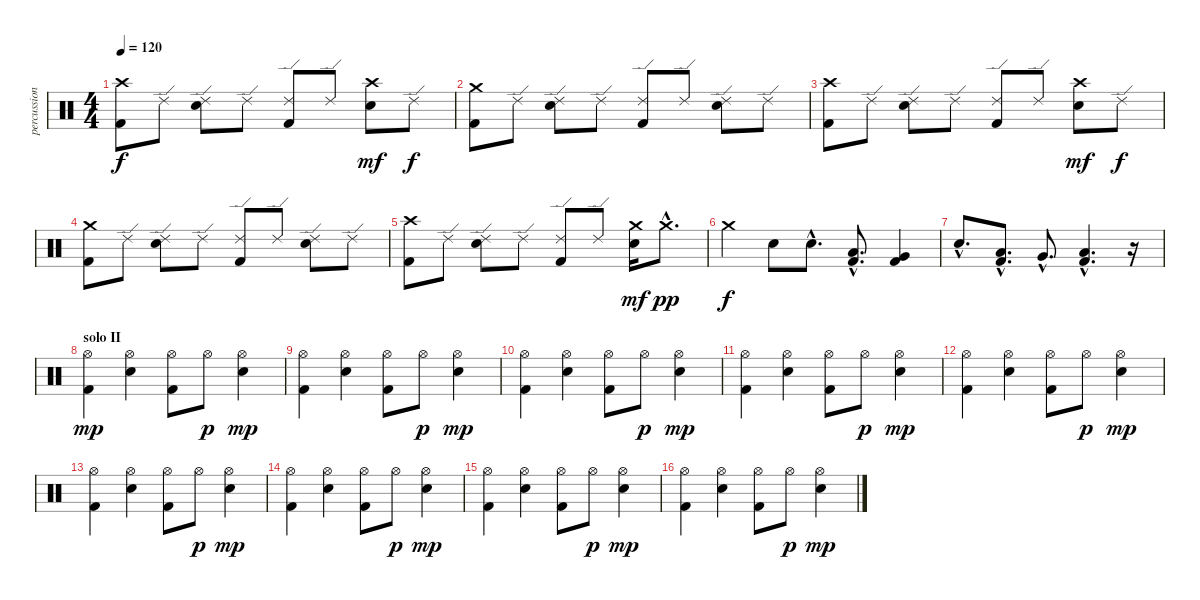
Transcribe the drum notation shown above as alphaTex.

\track ("percussion" "percussion") {instrument percussion}
\staff {score}
\articulation defaults
\ts (4 4)
\tempo 120
\clef neutral
\ks c
("Crash high (hit)" "Kick (hit) 2").8{dy f} "Ride (edge) 2".8 ("Ride (edge) 2" "Electric Snare (hit)").8 "Ride (edge) 2".8 ("Ride (edge) 2" "Kick (hit) 2").8 "Ride (edge) 2".8 ("Crash high (hit)" "Electric Snare (hit)").8{dy mf} "Ride (edge) 2".8{dy f} |
("Crash medium (hit)" "Kick (hit) 2").8 "Ride (edge) 2".8 ("Ride (edge) 2" "Electric Snare (hit)").8 "Ride (edge) 2".8 ("Ride (edge) 2" "Kick (hit) 2").8 "Ride (edge) 2".8 ("Ride (edge) 2" "Electric Snare (hit)").8 "Ride (edge) 2".8 |
("Crash high (hit)" "Kick (hit) 2").8 "Ride (edge) 2".8 ("Ride (edge) 2" "Electric Snare (hit)").8 "Ride (edge) 2".8 ("Ride (edge) 2" "Kick (hit) 2").8 "Ride (edge) 2".8 ("Crash high (hit)" "Electric Snare (hit)").8{dy mf} "Ride (edge) 2".8{dy f} |
("Crash medium (hit)" "Kick (hit) 2").8 "Ride (edge) 2".8 ("Ride (edge) 2" "Electric Snare (hit)").8 "Ride (edge) 2".8 ("Ride (edge) 2" "Kick (hit) 2").8 "Ride (edge) 2".8 ("Ride (edge) 2" "Electric Snare (hit)").8 "Ride (edge) 2".8 |
("Crash high (hit)" "Kick (hit) 2").8 "Ride (edge) 2".8 ("Ride (edge) 2" "Electric Snare (hit)").8 "Ride (edge) 2".8 ("Ride (edge) 2" "Kick (hit) 2").8 "Ride (edge) 2".8 ("Crash medium (hit)" "Electric Snare (hit)").16{dy mf} "Crash medium (hit)"{hac}.8{d dy pp} |
"Crash medium (hit)".4{dy f} "Electric Snare (hit)".8 "Electric Snare (hit)"{hac}.8{d} ("Low Tom (hit)"{hac} "Kick (hit) 2"{hac}).8{d} ("Very Low Tom (hit)" "Kick (hit) 2").4 |
"Electric Snare (hit)"{hac}.8{d} ("Low Tom (hit)"{hac} "Kick (hit) 2"{hac}).8{d} "Very Low Tom (hit)"{hac}.8{d} ("Low Floor Tom (hit)"{hac} "Kick (hit) 2"{hac}).4{d} r.16 |
\section ("" "solo II")
("Hi-Hat (open)" "Kick (hit) 2").4{dy mp} ("Hi-Hat (open)" "Electric Snare (hit)").4 ("Hi-Hat (open)" "Kick (hit) 2").8 "Hi-Hat (open)".8{dy p} ("Hi-Hat (open)" "Electric Snare (hit)").4{dy mp} |
("Hi-Hat (open)" "Kick (hit) 2").4 ("Hi-Hat (open)" "Electric Snare (hit)").4 ("Hi-Hat (open)" "Kick (hit) 2").8 "Hi-Hat (open)".8{dy p} ("Hi-Hat (open)" "Electric Snare (hit)").4{dy mp} |
("Hi-Hat (open)" "Kick (hit) 2").4 ("Hi-Hat (open)" "Electric Snare (hit)").4 ("Hi-Hat (open)" "Kick (hit) 2").8 "Hi-Hat (open)".8{dy p} ("Hi-Hat (open)" "Electric Snare (hit)").4{dy mp} |
("Hi-Hat (open)" "Kick (hit) 2").4 ("Hi-Hat (open)" "Electric Snare (hit)").4 ("Hi-Hat (open)" "Kick (hit) 2").8 "Hi-Hat (open)".8{dy p} ("Hi-Hat (open)" "Electric Snare (hit)").4{dy mp} |
("Hi-Hat (open)" "Kick (hit) 2").4 ("Hi-Hat (open)" "Electric Snare (hit)").4 ("Hi-Hat (open)" "Kick (hit) 2").8 "Hi-Hat (open)".8{dy p} ("Hi-Hat (open)" "Electric Snare (hit)").4{dy mp} |
("Hi-Hat (open)" "Kick (hit) 2").4 ("Hi-Hat (open)" "Electric Snare (hit)").4 ("Hi-Hat (open)" "Kick (hit) 2").8 "Hi-Hat (open)".8{dy p} ("Hi-Hat (open)" "Electric Snare (hit)").4{dy mp} |
("Hi-Hat (open)" "Kick (hit) 2").4 ("Hi-Hat (open)" "Electric Snare (hit)").4 ("Hi-Hat (open)" "Kick (hit) 2").8 "Hi-Hat (open)".8{dy p} ("Hi-Hat (open)" "Electric Snare (hit)").4{dy mp} |
("Hi-Hat (open)" "Kick (hit) 2").4 ("Hi-Hat (open)" "Electric Snare (hit)").4 ("Hi-Hat (open)" "Kick (hit) 2").8 "Hi-Hat (open)".8{dy p} ("Hi-Hat (open)" "Electric Snare (hit)").4{dy mp} |
("Hi-Hat (open)" "Kick (hit) 2").4 ("Hi-Hat (open)" "Electric Snare (hit)").4 ("Hi-Hat (open)" "Kick (hit) 2").8 "Hi-Hat (open)".8{dy p} ("Hi-Hat (open)" "Electric Snare (hit)").4{dy mp}
